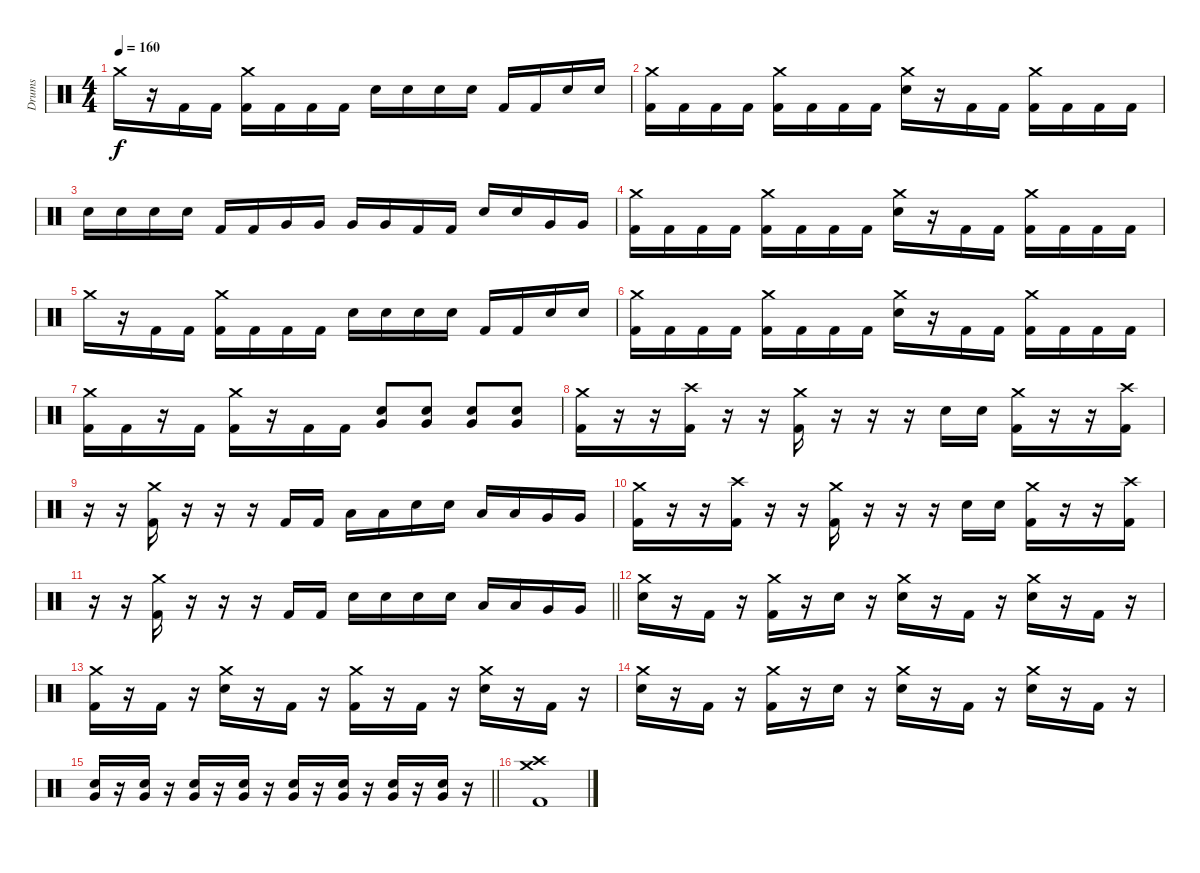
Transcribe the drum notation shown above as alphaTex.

\track ("Drums" "Drums") {instrument percussion}
\staff {score}
\articulation defaults
\ts (4 4)
\tempo 160
\clef neutral
\ks c "Crash medium (hit)".16{dy f}
r.16 "Kick (hit) 2".16 "Kick (hit) 2".16 ("Crash medium (hit)" "Kick (hit) 2").16 "Kick (hit) 2".16 "Kick (hit) 2".16 "Kick (hit) 2".16 "Electric Snare (hit)".16 "Electric Snare (hit)".16 "Electric Snare (hit)".16 "Electric Snare (hit)".16 "Kick (hit) 2".16 "Kick (hit) 2".16 "Electric Snare (hit)".16 "Electric Snare (hit)".16 |
("Crash medium (hit)" "Kick (hit) 2").16 "Kick (hit) 2".16 "Kick (hit) 2".16 "Kick (hit) 2".16 ("Crash medium (hit)" "Kick (hit) 2").16 "Kick (hit) 2".16 "Kick (hit) 2".16 "Kick (hit) 2".16 ("Crash medium (hit)" "Electric Snare (hit)").16 r.16 "Kick (hit) 2".16 "Kick (hit) 2".16 ("Crash medium (hit)" "Kick (hit) 2").16 "Kick (hit) 2".16 "Kick (hit) 2".16 "Kick (hit) 2".16 |
"Electric Snare (hit)".16 "Electric Snare (hit)".16 "Electric Snare (hit)".16 "Electric Snare (hit)".16 "Kick (hit) 2".16 "Kick (hit) 2".16 "Very Low Tom (hit)".16 "Very Low Tom (hit)".16 "Very Low Tom (hit)".16 "Very Low Tom (hit)".16 "Kick (hit) 2".16 "Kick (hit) 2".16 "Electric Snare (hit)".16 "Electric Snare (hit)".16 "Very Low Tom (hit)".16 "Very Low Tom (hit)".16 |
("Crash medium (hit)" "Kick (hit) 2").16 "Kick (hit) 2".16 "Kick (hit) 2".16 "Kick (hit) 2".16 ("Crash medium (hit)" "Kick (hit) 2").16 "Kick (hit) 2".16 "Kick (hit) 2".16 "Kick (hit) 2".16 ("Crash medium (hit)" "Electric Snare (hit)").16 r.16 "Kick (hit) 2".16 "Kick (hit) 2".16 ("Crash medium (hit)" "Kick (hit) 2").16 "Kick (hit) 2".16 "Kick (hit) 2".16 "Kick (hit) 2".16 |
"Crash medium (hit)".16 r.16 "Kick (hit) 2".16 "Kick (hit) 2".16 ("Crash medium (hit)" "Kick (hit) 2").16 "Kick (hit) 2".16 "Kick (hit) 2".16 "Kick (hit) 2".16 "Electric Snare (hit)".16 "Electric Snare (hit)".16 "Electric Snare (hit)".16 "Electric Snare (hit)".16 "Kick (hit) 2".16 "Kick (hit) 2".16 "Electric Snare (hit)".16 "Electric Snare (hit)".16 |
("Crash medium (hit)" "Kick (hit) 2").16 "Kick (hit) 2".16 "Kick (hit) 2".16 "Kick (hit) 2".16 ("Crash medium (hit)" "Kick (hit) 2").16 "Kick (hit) 2".16 "Kick (hit) 2".16 "Kick (hit) 2".16 ("Crash medium (hit)" "Electric Snare (hit)").16 r.16 "Kick (hit) 2".16 "Kick (hit) 2".16 ("Crash medium (hit)" "Kick (hit) 2").16 "Kick (hit) 2".16 "Kick (hit) 2".16 "Kick (hit) 2".16 |
("Crash medium (hit)" "Kick (hit) 2").16 "Kick (hit) 2".16 r.16 "Kick (hit) 2".16 ("Crash medium (hit)" "Kick (hit) 2").16 r.16 "Kick (hit) 2".16 "Kick (hit) 2".16 ("Very Low Tom (hit)" "Electric Snare (hit)").8 ("Very Low Tom (hit)" "Electric Snare (hit)").8 ("Very Low Tom (hit)" "Electric Snare (hit)").8 ("Very Low Tom (hit)" "Electric Snare (hit)").8 |
("Crash medium (hit)" "Kick (hit) 2").16 r.16 r.16 ("Crash high (hit)" "Kick (hit) 2").16 r.16 r.16 ("Crash medium (hit)" "Kick (hit) 2").16 r.16 r.16 r.16 "Electric Snare (hit)".16 "Electric Snare (hit)".16 ("Crash medium (hit)" "Kick (hit) 2").16 r.16 r.16 ("Crash high (hit)" "Kick (hit) 2").16 |
r.16 r.16 ("Crash medium (hit)" "Kick (hit) 2").16 r.16 r.16 r.16 "Kick (hit) 2".16 "Kick (hit) 2".16 "Low Tom (hit)".16 "Low Tom (hit)".16 "Electric Snare (hit)".16 "Electric Snare (hit)".16 "Low Tom (hit)".16 "Low Tom (hit)".16 "Very Low Tom (hit)".16 "Very Low Tom (hit)".16 |
("Crash medium (hit)" "Kick (hit) 2").16 r.16 r.16 ("Crash high (hit)" "Kick (hit) 2").16 r.16 r.16 ("Crash medium (hit)" "Kick (hit) 2").16 r.16 r.16 r.16 "Electric Snare (hit)".16 "Electric Snare (hit)".16 ("Crash medium (hit)" "Kick (hit) 2").16 r.16 r.16 ("Crash high (hit)" "Kick (hit) 2").16 |
\barLineRight lightlight
r.16 r.16 ("Crash medium (hit)" "Kick (hit) 2").16 r.16 r.16 r.16 "Kick (hit) 2".16 "Kick (hit) 2".16 "Electric Snare (hit)".16 "Electric Snare (hit)".16 "Electric Snare (hit)".16 "Electric Snare (hit)".16 "Low Tom (hit)".16 "Low Tom (hit)".16 "Very Low Tom (hit)".16 "Very Low Tom (hit)".16 |
("Crash medium (hit)" "Electric Snare (hit)").16 r.16 "Kick (hit) 2".16 r.16 ("Crash medium (hit)" "Kick (hit) 2").16 r.16 "Electric Snare (hit)".16 r.16 ("Crash medium (hit)" "Electric Snare (hit)").16 r.16 "Kick (hit) 2".16 r.16 ("Crash medium (hit)" "Electric Snare (hit)").16 r.16 "Kick (hit) 2".16 r.16 |
("Crash medium (hit)" "Kick (hit) 2").16 r.16 "Kick (hit) 2".16 r.16 ("Crash medium (hit)" "Electric Snare (hit)").16 r.16 "Kick (hit) 2".16 r.16 ("Crash medium (hit)" "Kick (hit) 2").16 r.16 "Kick (hit) 2".16 r.16 ("Crash medium (hit)" "Electric Snare (hit)").16 r.16 "Kick (hit) 2".16 r.16 |
("Crash medium (hit)" "Electric Snare (hit)").16 r.16 "Kick (hit) 2".16 r.16 ("Crash medium (hit)" "Kick (hit) 2").16 r.16 "Electric Snare (hit)".16 r.16 ("Crash medium (hit)" "Electric Snare (hit)").16 r.16 "Kick (hit) 2".16 r.16 ("Crash medium (hit)" "Electric Snare (hit)").16 r.16 "Kick (hit) 2".16 r.16 |
\barLineRight lightlight
("Very Low Tom (hit)" "Electric Snare (hit)").16{volume 8} r.16{volume 13} ("Very Low Tom (hit)" "Electric Snare (hit)").16 r.16 ("Very Low Tom (hit)" "Electric Snare (hit)").16 r.16 ("Very Low Tom (hit)" "Electric Snare (hit)").16 r.16 ("Very Low Tom (hit)" "Electric Snare (hit)").16 r.16 ("Very Low Tom (hit)" "Electric Snare (hit)").16 r.16 ("Very Low Tom (hit)" "Electric Snare (hit)").16 r.16 ("Very Low Tom (hit)" "Electric Snare (hit)").16 r.16 |
("Crash medium (hit)" "Crash high (hit)" "Kick (hit) 2").1
